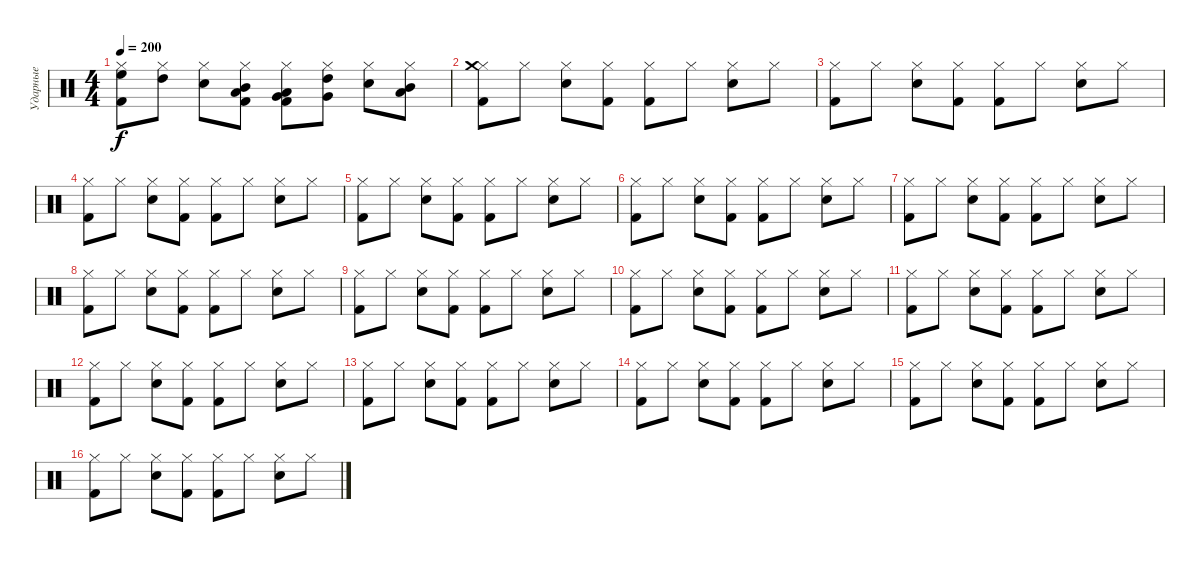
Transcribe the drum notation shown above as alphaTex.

\track ("Ударные" "Ударные") {instrument percussion}
\staff {score}
\articulation defaults
\ts (4 4)
\tempo 200
\clef neutral
\ks c
("Kick (hit) 2" "Hi-Hat (closed)" "High Floor Tom (hit)").8{dy f} ("Hi-Hat (closed)" "High Tom (hit)").8 ("Electric Snare (hit)" "Hi-Hat (closed)").8 ("Kick (hit) 2" "Hi-Hat (closed)" "Mid Tom (hit)" "Low Tom (hit)").8 ("Kick (hit) 2" "Hi-Hat (closed)" "Low Tom (hit)" "Very Low Tom (hit)").8 ("Hi-Hat (closed)" "Very Low Tom (hit)" "High Tom (hit)").8 ("Electric Snare (hit)" "Hi-Hat (closed)").8 ("Hi-Hat (closed)" "Low Floor Tom (hit)" "Mid Tom (hit)").8 |
("Kick (hit) 2" "Hi-Hat (closed)" "Crash medium (hit)").8 "Hi-Hat (closed)".8 ("Electric Snare (hit)" "Hi-Hat (closed)").8 ("Kick (hit) 2" "Hi-Hat (closed)").8 ("Kick (hit) 2" "Hi-Hat (closed)").8 "Hi-Hat (closed)".8 ("Electric Snare (hit)" "Hi-Hat (closed)").8 "Hi-Hat (closed)".8 |
("Kick (hit) 2" "Hi-Hat (closed)").8 "Hi-Hat (closed)".8 ("Electric Snare (hit)" "Hi-Hat (closed)").8 ("Kick (hit) 2" "Hi-Hat (closed)").8 ("Kick (hit) 2" "Hi-Hat (closed)").8 "Hi-Hat (closed)".8 ("Electric Snare (hit)" "Hi-Hat (closed)").8 "Hi-Hat (closed)".8 |
("Kick (hit) 2" "Hi-Hat (closed)").8 "Hi-Hat (closed)".8 ("Electric Snare (hit)" "Hi-Hat (closed)").8 ("Kick (hit) 2" "Hi-Hat (closed)").8 ("Kick (hit) 2" "Hi-Hat (closed)").8 "Hi-Hat (closed)".8 ("Electric Snare (hit)" "Hi-Hat (closed)").8 "Hi-Hat (closed)".8 |
("Kick (hit) 2" "Hi-Hat (closed)").8 "Hi-Hat (closed)".8 ("Electric Snare (hit)" "Hi-Hat (closed)").8 ("Kick (hit) 2" "Hi-Hat (closed)").8 ("Kick (hit) 2" "Hi-Hat (closed)").8 "Hi-Hat (closed)".8 ("Electric Snare (hit)" "Hi-Hat (closed)").8 "Hi-Hat (closed)".8 |
("Kick (hit) 2" "Hi-Hat (closed)").8 "Hi-Hat (closed)".8 ("Electric Snare (hit)" "Hi-Hat (closed)").8 ("Kick (hit) 2" "Hi-Hat (closed)").8 ("Kick (hit) 2" "Hi-Hat (closed)").8 "Hi-Hat (closed)".8 ("Electric Snare (hit)" "Hi-Hat (closed)").8 "Hi-Hat (closed)".8 |
("Kick (hit) 2" "Hi-Hat (closed)").8 "Hi-Hat (closed)".8 ("Electric Snare (hit)" "Hi-Hat (closed)").8 ("Kick (hit) 2" "Hi-Hat (closed)").8 ("Kick (hit) 2" "Hi-Hat (closed)").8 "Hi-Hat (closed)".8 ("Electric Snare (hit)" "Hi-Hat (closed)").8 "Hi-Hat (closed)".8 |
("Kick (hit) 2" "Hi-Hat (closed)").8 "Hi-Hat (closed)".8 ("Electric Snare (hit)" "Hi-Hat (closed)").8 ("Kick (hit) 2" "Hi-Hat (closed)").8 ("Kick (hit) 2" "Hi-Hat (closed)").8 "Hi-Hat (closed)".8 ("Electric Snare (hit)" "Hi-Hat (closed)").8 "Hi-Hat (closed)".8 |
("Kick (hit) 2" "Hi-Hat (closed)").8 "Hi-Hat (closed)".8 ("Electric Snare (hit)" "Hi-Hat (closed)").8 ("Kick (hit) 2" "Hi-Hat (closed)").8 ("Kick (hit) 2" "Hi-Hat (closed)").8 "Hi-Hat (closed)".8 ("Electric Snare (hit)" "Hi-Hat (closed)").8 "Hi-Hat (closed)".8 |
("Kick (hit) 2" "Hi-Hat (closed)").8 "Hi-Hat (closed)".8 ("Electric Snare (hit)" "Hi-Hat (closed)").8 ("Kick (hit) 2" "Hi-Hat (closed)").8 ("Kick (hit) 2" "Hi-Hat (closed)").8 "Hi-Hat (closed)".8 ("Electric Snare (hit)" "Hi-Hat (closed)").8 "Hi-Hat (closed)".8 |
("Kick (hit) 2" "Hi-Hat (closed)").8 "Hi-Hat (closed)".8 ("Electric Snare (hit)" "Hi-Hat (closed)").8 ("Kick (hit) 2" "Hi-Hat (closed)").8 ("Kick (hit) 2" "Hi-Hat (closed)").8 "Hi-Hat (closed)".8 ("Electric Snare (hit)" "Hi-Hat (closed)").8 "Hi-Hat (closed)".8 |
("Kick (hit) 2" "Hi-Hat (closed)").8 "Hi-Hat (closed)".8 ("Electric Snare (hit)" "Hi-Hat (closed)").8 ("Kick (hit) 2" "Hi-Hat (closed)").8 ("Kick (hit) 2" "Hi-Hat (closed)").8 "Hi-Hat (closed)".8 ("Electric Snare (hit)" "Hi-Hat (closed)").8 "Hi-Hat (closed)".8 |
("Kick (hit) 2" "Hi-Hat (closed)").8 "Hi-Hat (closed)".8 ("Electric Snare (hit)" "Hi-Hat (closed)").8 ("Kick (hit) 2" "Hi-Hat (closed)").8 ("Kick (hit) 2" "Hi-Hat (closed)").8 "Hi-Hat (closed)".8 ("Electric Snare (hit)" "Hi-Hat (closed)").8 "Hi-Hat (closed)".8 |
("Kick (hit) 2" "Hi-Hat (closed)").8 "Hi-Hat (closed)".8 ("Electric Snare (hit)" "Hi-Hat (closed)").8 ("Kick (hit) 2" "Hi-Hat (closed)").8 ("Kick (hit) 2" "Hi-Hat (closed)").8 "Hi-Hat (closed)".8 ("Electric Snare (hit)" "Hi-Hat (closed)").8 "Hi-Hat (closed)".8 |
("Kick (hit) 2" "Hi-Hat (closed)").8 "Hi-Hat (closed)".8 ("Electric Snare (hit)" "Hi-Hat (closed)").8 ("Kick (hit) 2" "Hi-Hat (closed)").8 ("Kick (hit) 2" "Hi-Hat (closed)").8 "Hi-Hat (closed)".8 ("Electric Snare (hit)" "Hi-Hat (closed)").8 "Hi-Hat (closed)".8 |
("Kick (hit) 2" "Hi-Hat (closed)").8 "Hi-Hat (closed)".8 ("Electric Snare (hit)" "Hi-Hat (closed)").8 ("Kick (hit) 2" "Hi-Hat (closed)").8 ("Kick (hit) 2" "Hi-Hat (closed)").8 "Hi-Hat (closed)".8 ("Electric Snare (hit)" "Hi-Hat (closed)").8 "Hi-Hat (closed)".8
